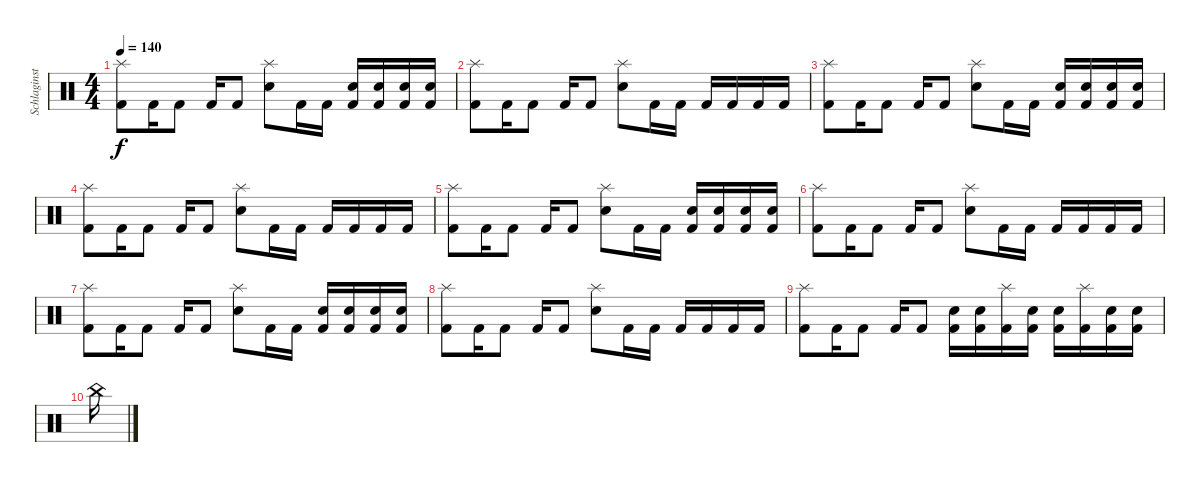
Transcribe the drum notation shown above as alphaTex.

\track ("Schlaginstrumente - Auswahl" "Schlaginst") {instrument percussion}
\staff {score}
\articulation defaults
\ts (4 4)
\tempo 140
\clef neutral
\ks c
("Splash (hit)" "Kick (hit) 2").8{dy f} "Kick (hit) 2".16 "Kick (hit) 2".8 "Kick (hit) 2".16 "Kick (hit) 2".8 ("Electric Snare (hit)" "Splash (hit)").8 "Kick (hit) 2".16 "Kick (hit) 2".16 ("Electric Snare (hit)" "Kick (hit) 2").16 ("Electric Snare (hit)" "Kick (hit) 2").16 ("Electric Snare (hit)" "Kick (hit) 2").16 ("Electric Snare (hit)" "Kick (hit) 2").16 |
("Splash (hit)" "Kick (hit) 2").8 "Kick (hit) 2".16 "Kick (hit) 2".8 "Kick (hit) 2".16 "Kick (hit) 2".8 ("Electric Snare (hit)" "Splash (hit)").8 "Kick (hit) 2".16 "Kick (hit) 2".16 "Kick (hit) 2".16 "Kick (hit) 2".16 "Kick (hit) 2".16 "Kick (hit) 2".16 |
("Splash (hit)" "Kick (hit) 2").8 "Kick (hit) 2".16 "Kick (hit) 2".8 "Kick (hit) 2".16 "Kick (hit) 2".8 ("Electric Snare (hit)" "Splash (hit)").8 "Kick (hit) 2".16 "Kick (hit) 2".16 ("Electric Snare (hit)" "Kick (hit) 2").16 ("Electric Snare (hit)" "Kick (hit) 2").16 ("Electric Snare (hit)" "Kick (hit) 2").16 ("Electric Snare (hit)" "Kick (hit) 2").16 |
("Splash (hit)" "Kick (hit) 2").8 "Kick (hit) 2".16 "Kick (hit) 2".8 "Kick (hit) 2".16 "Kick (hit) 2".8 ("Electric Snare (hit)" "Splash (hit)").8 "Kick (hit) 2".16 "Kick (hit) 2".16 "Kick (hit) 2".16 "Kick (hit) 2".16 "Kick (hit) 2".16 "Kick (hit) 2".16 |
("Splash (hit)" "Kick (hit) 2").8 "Kick (hit) 2".16 "Kick (hit) 2".8 "Kick (hit) 2".16 "Kick (hit) 2".8 ("Electric Snare (hit)" "Splash (hit)").8 "Kick (hit) 2".16 "Kick (hit) 2".16 ("Electric Snare (hit)" "Kick (hit) 2").16 ("Electric Snare (hit)" "Kick (hit) 2").16 ("Electric Snare (hit)" "Kick (hit) 2").16 ("Electric Snare (hit)" "Kick (hit) 2").16 |
("Splash (hit)" "Kick (hit) 2").8 "Kick (hit) 2".16 "Kick (hit) 2".8 "Kick (hit) 2".16 "Kick (hit) 2".8 ("Electric Snare (hit)" "Splash (hit)").8 "Kick (hit) 2".16 "Kick (hit) 2".16 "Kick (hit) 2".16 "Kick (hit) 2".16 "Kick (hit) 2".16 "Kick (hit) 2".16 |
("Splash (hit)" "Kick (hit) 2").8 "Kick (hit) 2".16 "Kick (hit) 2".8 "Kick (hit) 2".16 "Kick (hit) 2".8 ("Electric Snare (hit)" "Splash (hit)").8 "Kick (hit) 2".16 "Kick (hit) 2".16 ("Electric Snare (hit)" "Kick (hit) 2").16 ("Electric Snare (hit)" "Kick (hit) 2").16 ("Electric Snare (hit)" "Kick (hit) 2").16 ("Electric Snare (hit)" "Kick (hit) 2").16 |
("Splash (hit)" "Kick (hit) 2").8 "Kick (hit) 2".16 "Kick (hit) 2".8 "Kick (hit) 2".16 "Kick (hit) 2".8 ("Electric Snare (hit)" "Splash (hit)").8 "Kick (hit) 2".16 "Kick (hit) 2".16 "Kick (hit) 2".16 "Kick (hit) 2".16 "Kick (hit) 2".16 "Kick (hit) 2".16 |
("Splash (hit)" "Kick (hit) 2").8 "Kick (hit) 2".16 "Kick (hit) 2".8 "Kick (hit) 2".16 "Kick (hit) 2".8 ("Electric Snare (hit)" "Kick (hit) 2").16 ("Electric Snare (hit)" "Kick (hit) 2").16 ("Splash (hit)" "Kick (hit) 2").16 ("Electric Snare (hit)" "Kick (hit) 2").16 ("Electric Snare (hit)" "Kick (hit) 2").16 ("Splash (hit)" "Kick (hit) 2").16 ("Electric Snare (hit)" "Kick (hit) 2").16 ("Electric Snare (hit)" "Kick (hit) 2").16 |
"China (hit)".16
